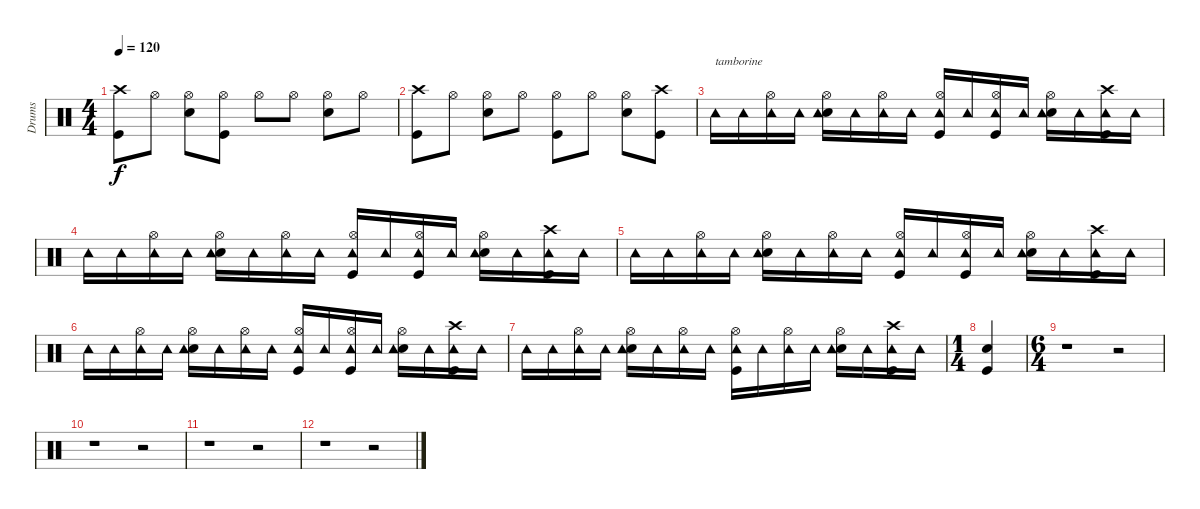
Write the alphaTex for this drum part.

\track ("Drums" "Drums") {instrument percussion}
\staff {score}
\articulation defaults
\ts (4 4)
\tempo 120
\clef neutral
\ks c
("Crash high (hit)" "Kick (hit)").8{dy f} "Hi-Hat (open)".8 ("Hi-Hat (open)" "Snare (hit) 2").8 ("Hi-Hat (open)" "Kick (hit)").8 "Hi-Hat (open)".8 "Hi-Hat (open)".8 ("Hi-Hat (open)" "Snare (hit) 2").8 "Hi-Hat (open)".8 |
("Crash high (hit)" "Kick (hit)").8 "Hi-Hat (open)".8 ("Hi-Hat (open)" "Snare (hit) 2").8 "Hi-Hat (open)".8 ("Hi-Hat (open)" "Kick (hit)").8 "Hi-Hat (open)".8 ("Hi-Hat (open)" "Snare (hit) 2").8 ("Crash high (hit)" "Kick (hit)").8 |
"Tambourine (hit)".16{txt "tamborine"} "Tambourine (hit)".16 ("Hi-Hat (open)" "Tambourine (hit)").16 "Tambourine (hit)".16 ("Hi-Hat (open)" "Snare (hit) 2" "Tambourine (hit)").16 "Tambourine (hit)".16 ("Hi-Hat (open)" "Tambourine (hit)").16 "Tambourine (hit)".16 ("Hi-Hat (open)" "Tambourine (hit)" "Kick (hit)").16 "Tambourine (hit)".16 ("Hi-Hat (open)" "Tambourine (hit)" "Kick (hit)").16 "Tambourine (hit)".16 ("Hi-Hat (open)" "Snare (hit) 2" "Tambourine (hit)").16 "Tambourine (hit)".16 ("Crash high (hit)" "Tambourine (hit)" "Kick (hit)").16 "Tambourine (hit)".16 |
"Tambourine (hit)".16 "Tambourine (hit)".16 ("Hi-Hat (open)" "Tambourine (hit)").16 "Tambourine (hit)".16 ("Hi-Hat (open)" "Snare (hit) 2" "Tambourine (hit)").16 "Tambourine (hit)".16 ("Hi-Hat (open)" "Tambourine (hit)").16 "Tambourine (hit)".16 ("Hi-Hat (open)" "Tambourine (hit)" "Kick (hit)").16 "Tambourine (hit)".16 ("Hi-Hat (open)" "Tambourine (hit)" "Kick (hit)").16 "Tambourine (hit)".16 ("Hi-Hat (open)" "Snare (hit) 2" "Tambourine (hit)").16 "Tambourine (hit)".16 ("Crash high (hit)" "Tambourine (hit)" "Kick (hit)").16 "Tambourine (hit)".16 |
"Tambourine (hit)".16 "Tambourine (hit)".16 ("Hi-Hat (open)" "Tambourine (hit)").16 "Tambourine (hit)".16 ("Hi-Hat (open)" "Snare (hit) 2" "Tambourine (hit)").16 "Tambourine (hit)".16 ("Hi-Hat (open)" "Tambourine (hit)").16 "Tambourine (hit)".16 ("Hi-Hat (open)" "Tambourine (hit)" "Kick (hit)").16 "Tambourine (hit)".16 ("Hi-Hat (open)" "Tambourine (hit)" "Kick (hit)").16 "Tambourine (hit)".16 ("Hi-Hat (open)" "Snare (hit) 2" "Tambourine (hit)").16 "Tambourine (hit)".16 ("Crash high (hit)" "Tambourine (hit)" "Kick (hit)").16 "Tambourine (hit)".16 |
"Tambourine (hit)".16 "Tambourine (hit)".16 ("Hi-Hat (open)" "Tambourine (hit)").16 "Tambourine (hit)".16 ("Hi-Hat (open)" "Snare (hit) 2" "Tambourine (hit)").16 "Tambourine (hit)".16 ("Hi-Hat (open)" "Tambourine (hit)").16 "Tambourine (hit)".16 ("Hi-Hat (open)" "Tambourine (hit)" "Kick (hit)").16 "Tambourine (hit)".16 ("Hi-Hat (open)" "Tambourine (hit)" "Kick (hit)").16 "Tambourine (hit)".16 ("Hi-Hat (open)" "Snare (hit) 2" "Tambourine (hit)").16 "Tambourine (hit)".16 ("Crash high (hit)" "Tambourine (hit)" "Kick (hit)").16 "Tambourine (hit)".16 |
"Tambourine (hit)".16 "Tambourine (hit)".16 ("Hi-Hat (open)" "Tambourine (hit)").16 "Tambourine (hit)".16 ("Hi-Hat (open)" "Snare (hit) 2" "Tambourine (hit)").16 "Tambourine (hit)".16 ("Hi-Hat (open)" "Tambourine (hit)").16 "Tambourine (hit)".16 ("Hi-Hat (open)" "Tambourine (hit)" "Kick (hit)").16 "Tambourine (hit)".16 ("Hi-Hat (open)" "Tambourine (hit)").16 "Tambourine (hit)".16 ("Hi-Hat (open)" "Snare (hit) 2" "Tambourine (hit)").16 "Tambourine (hit)".16 ("Crash high (hit)" "Tambourine (hit)" "Kick (hit)").16 "Tambourine (hit)".16 |
\ts (1 4)
("Snare (hit) 2" "Kick (hit)").4 |
\ts (6 4)
r.1 r.2 |
r.1 r.2 |
r.1 r.2 |
r.1 r.2
